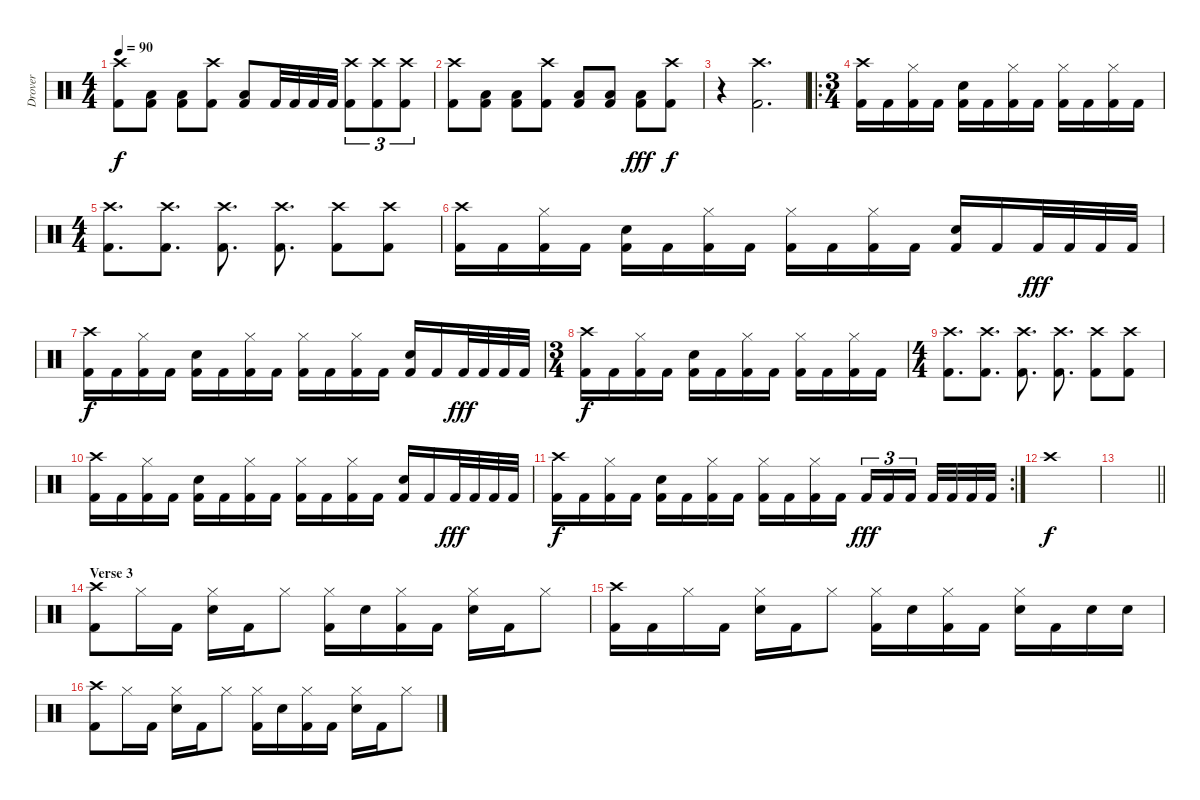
\track ("Drover" "Drover") {instrument percussion}
\staff {score}
\articulation defaults
\ts (4 4)
\tempo 90
\clef neutral
\ks c
("Crash high (hit)" "Kick (hit) 2").8{dy f} ("Low Floor Tom (hit)" "Kick (hit) 2").8 ("Low Floor Tom (hit)" "Kick (hit) 2").8 ("Crash high (hit)" "Kick (hit) 2").8 ("Low Floor Tom (hit)" "Kick (hit) 2").8 "Kick (hit) 2".32 "Kick (hit) 2".32 "Kick (hit) 2".32 "Kick (hit) 2".32 ("Crash high (hit)" "Kick (hit) 2").8{tu (3 2)} ("Crash high (hit)" "Kick (hit) 2").8{tu (3 2)} ("Crash high (hit)" "Kick (hit) 2").8{tu (3 2)} |
("Crash high (hit)" "Kick (hit) 2").8 ("Low Floor Tom (hit)" "Kick (hit) 2").8 ("Low Floor Tom (hit)" "Kick (hit) 2").8 ("Crash high (hit)" "Kick (hit) 2").8 ("Low Floor Tom (hit)" "Kick (hit) 2").8 ("Low Floor Tom (hit)" "Kick (hit) 2").8 ("Low Floor Tom (hit)" "Kick (hit) 2").8{dy fff} ("Crash high (hit)" "Kick (hit) 2").8{dy f} |
r.4 ("Crash high (hit)" "Kick (hit) 2").2{d} |
\ro
\ts (3 4)
("Crash high (hit)" "Kick (hit) 2").16 "Kick (hit) 2".16 ("Hi-Hat (closed)" "Kick (hit) 2").16 "Kick (hit) 2".16 ("Snare (hit) 2" "Kick (hit) 2").16 "Kick (hit) 2".16 ("Hi-Hat (closed)" "Kick (hit) 2").16 "Kick (hit) 2".16 ("Hi-Hat (closed)" "Kick (hit) 2").16 "Kick (hit) 2".16 ("Hi-Hat (closed)" "Kick (hit) 2").16 "Kick (hit) 2".16 |
\ts (4 4)
("Crash high (hit)" "Kick (hit) 2").8{d} ("Crash high (hit)" "Kick (hit) 2").8{d} ("Crash high (hit)" "Kick (hit) 2").8{d} ("Crash high (hit)" "Kick (hit) 2").8{d} ("Crash high (hit)" "Kick (hit) 2").8 ("Crash high (hit)" "Kick (hit) 2").8 |
("Crash high (hit)" "Kick (hit) 2").16 "Kick (hit) 2".16 ("Hi-Hat (closed)" "Kick (hit) 2").16 "Kick (hit) 2".16 ("Snare (hit) 2" "Kick (hit) 2").16 "Kick (hit) 2".16 ("Hi-Hat (closed)" "Kick (hit) 2").16 "Kick (hit) 2".16 ("Hi-Hat (closed)" "Kick (hit) 2").16 "Kick (hit) 2".16 ("Hi-Hat (closed)" "Kick (hit) 2").16 "Kick (hit) 2".16 ("Snare (hit) 2" "Kick (hit) 2").16 "Kick (hit) 2".16 "Kick (hit) 2".32{dy fff} "Kick (hit) 2".32 "Kick (hit) 2".32 "Kick (hit) 2".32 |
("Crash high (hit)" "Kick (hit) 2").16{dy f} "Kick (hit) 2".16 ("Hi-Hat (closed)" "Kick (hit) 2").16 "Kick (hit) 2".16 ("Snare (hit) 2" "Kick (hit) 2").16 "Kick (hit) 2".16 ("Hi-Hat (closed)" "Kick (hit) 2").16 "Kick (hit) 2".16 ("Hi-Hat (closed)" "Kick (hit) 2").16 "Kick (hit) 2".16 ("Hi-Hat (closed)" "Kick (hit) 2").16 "Kick (hit) 2".16 ("Snare (hit) 2" "Kick (hit) 2").16 "Kick (hit) 2".16 "Kick (hit) 2".32{dy fff} "Kick (hit) 2".32 "Kick (hit) 2".32 "Kick (hit) 2".32 |
\ts (3 4)
("Crash high (hit)" "Kick (hit) 2").16{dy f} "Kick (hit) 2".16 ("Hi-Hat (closed)" "Kick (hit) 2").16 "Kick (hit) 2".16 ("Snare (hit) 2" "Kick (hit) 2").16 "Kick (hit) 2".16 ("Hi-Hat (closed)" "Kick (hit) 2").16 "Kick (hit) 2".16 ("Hi-Hat (closed)" "Kick (hit) 2").16 "Kick (hit) 2".16 ("Hi-Hat (closed)" "Kick (hit) 2").16 "Kick (hit) 2".16 |
\ts (4 4)
("Crash high (hit)" "Kick (hit) 2").8{d} ("Crash high (hit)" "Kick (hit) 2").8{d} ("Crash high (hit)" "Kick (hit) 2").8{d} ("Crash high (hit)" "Kick (hit) 2").8{d} ("Crash high (hit)" "Kick (hit) 2").8 ("Crash high (hit)" "Kick (hit) 2").8 |
("Crash high (hit)" "Kick (hit) 2").16 "Kick (hit) 2".16 ("Hi-Hat (closed)" "Kick (hit) 2").16 "Kick (hit) 2".16 ("Snare (hit) 2" "Kick (hit) 2").16 "Kick (hit) 2".16 ("Hi-Hat (closed)" "Kick (hit) 2").16 "Kick (hit) 2".16 ("Hi-Hat (closed)" "Kick (hit) 2").16 "Kick (hit) 2".16 ("Hi-Hat (closed)" "Kick (hit) 2").16 "Kick (hit) 2".16 ("Snare (hit) 2" "Kick (hit) 2").16 "Kick (hit) 2".16 "Kick (hit) 2".32{dy fff} "Kick (hit) 2".32 "Kick (hit) 2".32 "Kick (hit) 2".32 |
\rc 2
("Crash high (hit)" "Kick (hit) 2").16{dy f} "Kick (hit) 2".16 ("Hi-Hat (closed)" "Kick (hit) 2").16 "Kick (hit) 2".16 ("Snare (hit) 2" "Kick (hit) 2").16 "Kick (hit) 2".16 ("Hi-Hat (closed)" "Kick (hit) 2").16 "Kick (hit) 2".16 ("Hi-Hat (closed)" "Kick (hit) 2").16 "Kick (hit) 2".16 ("Hi-Hat (closed)" "Kick (hit) 2").16 "Kick (hit) 2".16 "Kick (hit) 2".16{tu (3 2) dy fff} "Kick (hit) 2".16{tu (3 2)} "Kick (hit) 2".16{tu (3 2) beam splitsecondary} "Kick (hit) 2".32 "Kick (hit) 2".32 "Kick (hit) 2".32 "Kick (hit) 2".32 |
"Crash high (hit)".1{dy f} |
\barLineRight lightlight
|
\section ("" "Verse 3")
("Crash high (hit)" "Kick (hit) 2").8 "Hi-Hat (closed)".16 "Kick (hit) 2".16 ("Hi-Hat (closed)" "Snare (hit) 2").16 "Kick (hit) 2".16 "Hi-Hat (closed)".8 ("Hi-Hat (closed)" "Kick (hit) 2").16 "Snare (hit) 2".16 ("Hi-Hat (closed)" "Kick (hit) 2").16 "Kick (hit) 2".16 ("Hi-Hat (closed)" "Snare (hit) 2").16 "Kick (hit) 2".16 "Hi-Hat (closed)".8 |
("Crash high (hit)" "Kick (hit) 2").16 "Kick (hit) 2".16 "Hi-Hat (closed)".16 "Kick (hit) 2".16 ("Hi-Hat (closed)" "Snare (hit) 2").16 "Kick (hit) 2".16 "Hi-Hat (closed)".8 ("Hi-Hat (closed)" "Kick (hit) 2").16 "Snare (hit) 2".16 ("Hi-Hat (closed)" "Kick (hit) 2").16 "Kick (hit) 2".16 ("Hi-Hat (closed)" "Snare (hit) 2").16 "Kick (hit) 2".16 "Snare (hit) 2".16 "Snare (hit) 2".16 |
("Crash high (hit)" "Kick (hit) 2").8 "Hi-Hat (closed)".16 "Kick (hit) 2".16 ("Hi-Hat (closed)" "Snare (hit) 2").16 "Kick (hit) 2".16 "Hi-Hat (closed)".8 ("Hi-Hat (closed)" "Kick (hit) 2").16 "Snare (hit) 2".16 ("Hi-Hat (closed)" "Kick (hit) 2").16 "Kick (hit) 2".16 ("Hi-Hat (closed)" "Snare (hit) 2").16 "Kick (hit) 2".16 "Hi-Hat (closed)".8
